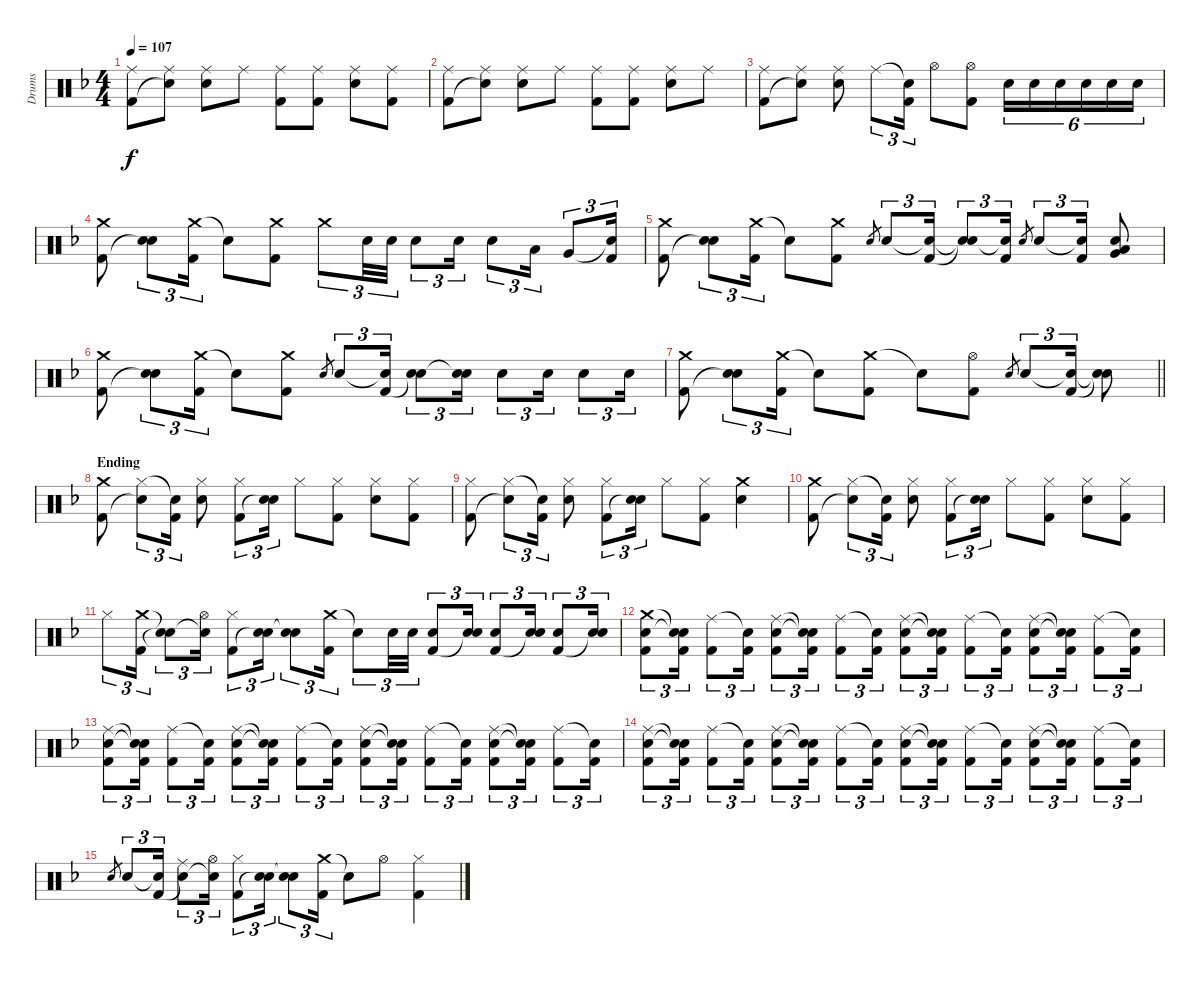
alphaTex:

\track ("Drums" "Drums") {instrument percussion}
\staff {score}
\articulation defaults
\ts (4 4)
\tempo 107
\clef neutral
\ks dminor
("Ride (middle)" "Kick (hit) 2").8{dy f} ("Ride (middle)" "Snare (hit)"{t}).8 ("Ride (middle)" "Electric Snare (hit)").8 "Ride (middle)".8 ("Ride (middle)" "Kick (hit) 2").8 ("Ride (middle)" "Kick (hit) 2").8 ("Ride (middle)" "Electric Snare (hit)").8 ("Ride (middle)" "Kick (hit) 2").8 |
("Ride (middle)" "Kick (hit) 2").8 ("Ride (middle)" "Snare (hit)"{t}).8 ("Ride (middle)" "Electric Snare (hit)").8 "Ride (middle)".8 ("Ride (middle)" "Kick (hit) 2").8 ("Ride (middle)" "Kick (hit) 2").8 ("Ride (middle)" "Electric Snare (hit)").8 "Ride (middle)".8 |
("Ride (middle)" "Kick (hit) 2").8 ("Ride (middle)" "Snare (hit)"{t}).8 ("Ride (middle)" "Electric Snare (hit)").8 "Ride (middle)".8{tu (3 2)} ("Snare (hit)"{t} "Kick (hit) 2").16{tu (3 2)} "Hi-Hat (open)".8 ("Hi-Hat (open)" "Kick (hit) 2").8 "Electric Snare (hit)".16{tu (6 4)} "Electric Snare (hit)".16{tu (6 4)} "Electric Snare (hit)".16{tu (6 4)} "Electric Snare (hit)".16{tu (6 4)} "Electric Snare (hit)".16{tu (6 4)} "Electric Snare (hit)".16{tu (6 4)} |
("Crash medium (hit)" "Kick (hit) 2").8 ("Electric Snare (hit)" "Snare (hit)"{t}).8{tu (3 2)} ("Crash medium (hit)" "Kick (hit) 2").16{tu (3 2)} "Snare (hit)"{t}.8 ("Crash medium (hit)" "Kick (hit) 2").8 "Crash medium (hit)".8{tu (3 2)} "Electric Snare (hit)".32{tu (3 2)} "Electric Snare (hit)".32{tu (3 2)} "Electric Snare (hit)".8{tu (3 2)} "Electric Snare (hit)".16{tu (3 2)} "Electric Snare (hit)".8{tu (3 2)} "Low Tom (hit)".16{tu (3 2)} "Very Low Tom (hit)".8{tu (3 2)} ("Snare (hit)"{t} "Kick (hit) 2").16{tu (3 2)} |
("Crash medium (hit)" "Kick (hit) 2").8 ("Electric Snare (hit)" "Snare (hit)"{t}).8{tu (3 2)} ("Crash medium (hit)" "Kick (hit) 2").16{tu (3 2)} "Snare (hit)"{t}.8 ("Crash medium (hit)" "Kick (hit) 2").8 "Electric Snare (hit)".8{gr} "Electric Snare (hit)".8{tu (3 2)} ("Snare (hit)"{t} "Kick (hit) 2").16{tu (3 2)} ("Snare (hit)"{t} "Snare (hit)"{t}).8{tu (3 2)} ("Snare (hit)"{t} "Kick (hit) 2").16{tu (3 2)} "Electric Snare (hit)".8{gr} "Electric Snare (hit)".8{tu (3 2)} ("Snare (hit)"{t} "Kick (hit) 2").16{tu (3 2)} ("Low Tom (hit)" "Very Low Tom (hit)" "Snare (hit)").8 |
("Crash medium (hit)" "Kick (hit) 2").8 ("Electric Snare (hit)" "Snare (hit)"{t}).8{tu (3 2)} ("Crash medium (hit)" "Kick (hit) 2").16{tu (3 2)} "Snare (hit)"{t}.8 ("Crash medium (hit)" "Kick (hit) 2").8 "Electric Snare (hit)".8{gr} "Electric Snare (hit)".8{tu (3 2)} ("Snare (hit)"{t} "Kick (hit) 2").16{tu (3 2)} ("Electric Snare (hit)" "Snare (hit)"{t}).8{tu (3 2)} ("Electric Snare (hit)" "Snare (hit)"{t}).16{tu (3 2)} "Electric Snare (hit)".8{tu (3 2)} "Electric Snare (hit)".16{tu (3 2)} "Electric Snare (hit)".8{tu (3 2)} "Electric Snare (hit)".16{tu (3 2)} |
\barLineRight lightlight
("Crash medium (hit)" "Kick (hit) 2").8 ("Electric Snare (hit)" "Snare (hit)"{t}).8{tu (3 2)} ("Crash medium (hit)" "Kick (hit) 2").16{tu (3 2)} "Snare (hit)"{t}.8 ("Crash medium (hit)" "Kick (hit) 2").8 "Snare (hit)"{t}.8 ("Hi-Hat (open)" "Kick (hit) 2").8 "Electric Snare (hit)".8{gr} "Electric Snare (hit)".8{tu (3 2)} ("Snare (hit)"{t} "Kick (hit) 2").16{tu (3 2)} ("Snare (hit)"{t} "Snare (hit)"{t}).8 |
\section ("" "Ending")
("Crash medium (hit)" "Kick (hit) 2").8 ("Hi-Hat (closed)" "Snare (hit)"{t}).8{tu (3 2)} ("Snare (hit)"{t} "Kick (hit) 2").16{tu (3 2)} ("Hi-Hat (closed)" "Electric Snare (hit)").8 ("Hi-Hat (closed)" "Kick (hit) 2").8{tu (3 2)} ("Electric Snare (hit)" "Snare (hit)"{t}).16{tu (3 2)} "Hi-Hat (closed)".8 ("Hi-Hat (closed)" "Kick (hit) 2").8 ("Hi-Hat (closed)" "Electric Snare (hit)").8 ("Hi-Hat (closed)" "Kick (hit) 2").8 |
("Hi-Hat (closed)" "Kick (hit) 2").8 ("Hi-Hat (closed)" "Snare (hit)"{t}).8{tu (3 2)} ("Snare (hit)"{t} "Kick (hit) 2").16{tu (3 2)} ("Hi-Hat (closed)" "Electric Snare (hit)").8 ("Hi-Hat (closed)" "Kick (hit) 2").8{tu (3 2)} ("Electric Snare (hit)" "Snare (hit)"{t}).16{tu (3 2)} "Hi-Hat (closed)".8 ("Hi-Hat (closed)" "Kick (hit) 2").8 ("Crash medium (hit)" "Electric Snare (hit)").4 |
("Crash medium (hit)" "Kick (hit) 2").8 ("Hi-Hat (closed)" "Snare (hit)"{t}).8{tu (3 2)} ("Snare (hit)"{t} "Kick (hit) 2").16{tu (3 2)} ("Hi-Hat (closed)" "Electric Snare (hit)").8 ("Hi-Hat (closed)" "Kick (hit) 2").8{tu (3 2)} ("Electric Snare (hit)" "Snare (hit)"{t}).16{tu (3 2)} "Hi-Hat (closed)".8 ("Hi-Hat (closed)" "Kick (hit) 2").8 ("Hi-Hat (closed)" "Electric Snare (hit)").8 ("Hi-Hat (closed)" "Kick (hit) 2").8 |
"Hi-Hat (closed)".8{tu (3 2)} ("Crash medium (hit)" "Kick (hit) 2").16{tu (3 2)} ("Snare (hit)"{t} "Snare (hit)"{t}).8{tu (3 2)} ("Hi-Hat (open)" "Snare (hit)"{t}).16{tu (3 2)} ("Hi-Hat (closed)" "Kick (hit) 2").8{tu (3 2)} ("Electric Snare (hit)" "Snare (hit)"{t}).16{tu (3 2)} ("Electric Snare (hit)" "Snare (hit)"{t}).8{tu (3 2)} ("Crash medium (hit)" "Kick (hit) 2").16{tu (3 2)} "Snare (hit)"{t}.8{tu (3 2)} "Electric Snare (hit)".32{tu (3 2)} "Electric Snare (hit)".32{tu (3 2)} ("Electric Snare (hit)" "Kick (hit) 2").8{tu (3 2)} ("Electric Snare (hit)" "Snare (hit)"{t}).16{tu (3 2)} ("Electric Snare (hit)" "Kick (hit) 2").8{tu (3 2)} ("Electric Snare (hit)" "Snare (hit)"{t}).16{tu (3 2)} ("Electric Snare (hit)" "Kick (hit) 2").8{tu (3 2)} ("Electric Snare (hit)" "Snare (hit)"{t}).16{tu (3 2)} |
("Crash medium (hit)" "Electric Snare (hit)" "Kick (hit) 2").8{tu (3 2)} ("Snare (hit)"{t} "Snare (hit)"{t} "Kick (hit) 2").16{tu (3 2)} ("Ride (middle)" "Kick (hit) 2").8{tu (3 2)} ("Snare (hit)"{t} "Kick (hit) 2").16{tu (3 2)} ("Ride (middle)" "Electric Snare (hit)" "Kick (hit) 2").8{tu (3 2)} ("Snare (hit)"{t} "Snare (hit)"{t} "Kick (hit) 2").16{tu (3 2)} ("Ride (middle)" "Kick (hit) 2").8{tu (3 2)} ("Snare (hit)"{t} "Kick (hit) 2").16{tu (3 2)} ("Ride (middle)" "Electric Snare (hit)" "Kick (hit) 2").8{tu (3 2)} ("Snare (hit)"{t} "Snare (hit)"{t} "Kick (hit) 2").16{tu (3 2)} ("Ride (middle)" "Kick (hit) 2").8{tu (3 2)} ("Snare (hit)"{t} "Kick (hit) 2").16{tu (3 2)} ("Ride (middle)" "Electric Snare (hit)" "Kick (hit) 2").8{tu (3 2)} ("Snare (hit)"{t} "Snare (hit)"{t} "Kick (hit) 2").16{tu (3 2)} ("Ride (middle)" "Kick (hit) 2").8{tu (3 2)} ("Snare (hit)"{t} "Kick (hit) 2").16{tu (3 2)} |
("Ride (middle)" "Electric Snare (hit)" "Kick (hit) 2").8{tu (3 2)} ("Snare (hit)"{t} "Snare (hit)"{t} "Kick (hit) 2").16{tu (3 2)} ("Ride (middle)" "Kick (hit) 2").8{tu (3 2)} ("Snare (hit)"{t} "Kick (hit) 2").16{tu (3 2)} ("Ride (middle)" "Electric Snare (hit)" "Kick (hit) 2").8{tu (3 2)} ("Snare (hit)"{t} "Snare (hit)"{t} "Kick (hit) 2").16{tu (3 2)} ("Ride (middle)" "Kick (hit) 2").8{tu (3 2)} ("Snare (hit)"{t} "Kick (hit) 2").16{tu (3 2)} ("Ride (middle)" "Electric Snare (hit)" "Kick (hit) 2").8{tu (3 2)} ("Snare (hit)"{t} "Snare (hit)"{t} "Kick (hit) 2").16{tu (3 2)} ("Ride (middle)" "Kick (hit) 2").8{tu (3 2)} ("Snare (hit)"{t} "Kick (hit) 2").16{tu (3 2)} ("Ride (middle)" "Electric Snare (hit)" "Kick (hit) 2").8{tu (3 2)} ("Snare (hit)"{t} "Snare (hit)"{t} "Kick (hit) 2").16{tu (3 2)} ("Ride (middle)" "Kick (hit) 2").8{tu (3 2)} ("Snare (hit)"{t} "Kick (hit) 2").16{tu (3 2)} |
("Ride (middle)" "Electric Snare (hit)" "Kick (hit) 2").8{tu (3 2)} ("Snare (hit)"{t} "Snare (hit)"{t} "Kick (hit) 2").16{tu (3 2)} ("Ride (middle)" "Kick (hit) 2").8{tu (3 2)} ("Snare (hit)"{t} "Kick (hit) 2").16{tu (3 2)} ("Ride (middle)" "Electric Snare (hit)" "Kick (hit) 2").8{tu (3 2)} ("Snare (hit)"{t} "Snare (hit)"{t} "Kick (hit) 2").16{tu (3 2)} ("Ride (middle)" "Kick (hit) 2").8{tu (3 2)} ("Snare (hit)"{t} "Kick (hit) 2").16{tu (3 2)} ("Ride (middle)" "Electric Snare (hit)" "Kick (hit) 2").8{tu (3 2)} ("Snare (hit)"{t} "Snare (hit)"{t} "Kick (hit) 2").16{tu (3 2)} ("Ride (middle)" "Kick (hit) 2").8{tu (3 2)} ("Snare (hit)"{t} "Kick (hit) 2").16{tu (3 2)} ("Ride (middle)" "Electric Snare (hit)" "Kick (hit) 2").8{tu (3 2)} ("Snare (hit)"{t} "Snare (hit)"{t} "Kick (hit) 2").16{tu (3 2)} ("Ride (middle)" "Kick (hit) 2").8{tu (3 2)} ("Snare (hit)"{t} "Kick (hit) 2").16{tu (3 2)} |
"Electric Snare (hit)".8{gr} "Electric Snare (hit)".8{tu (3 2)} ("Snare (hit)"{t} "Kick (hit) 2").16{tu (3 2)} ("Ride (middle)" "Snare (hit)"{t}).8{tu (3 2)} ("Hi-Hat (open)" "Snare (hit)"{t}).16{tu (3 2)} ("Hi-Hat (closed)" "Kick (hit) 2").8{tu (3 2)} ("Electric Snare (hit)" "Snare (hit)"{t}).16{tu (3 2)} ("Electric Snare (hit)" "Snare (hit)"{t}).8{tu (3 2)} ("Crash medium (hit)" "Kick (hit) 2").16{tu (3 2)} "Snare (hit)"{t}.8 "Hi-Hat (open)".8 ("Hi-Hat (closed)" "Kick (hit) 2").4
